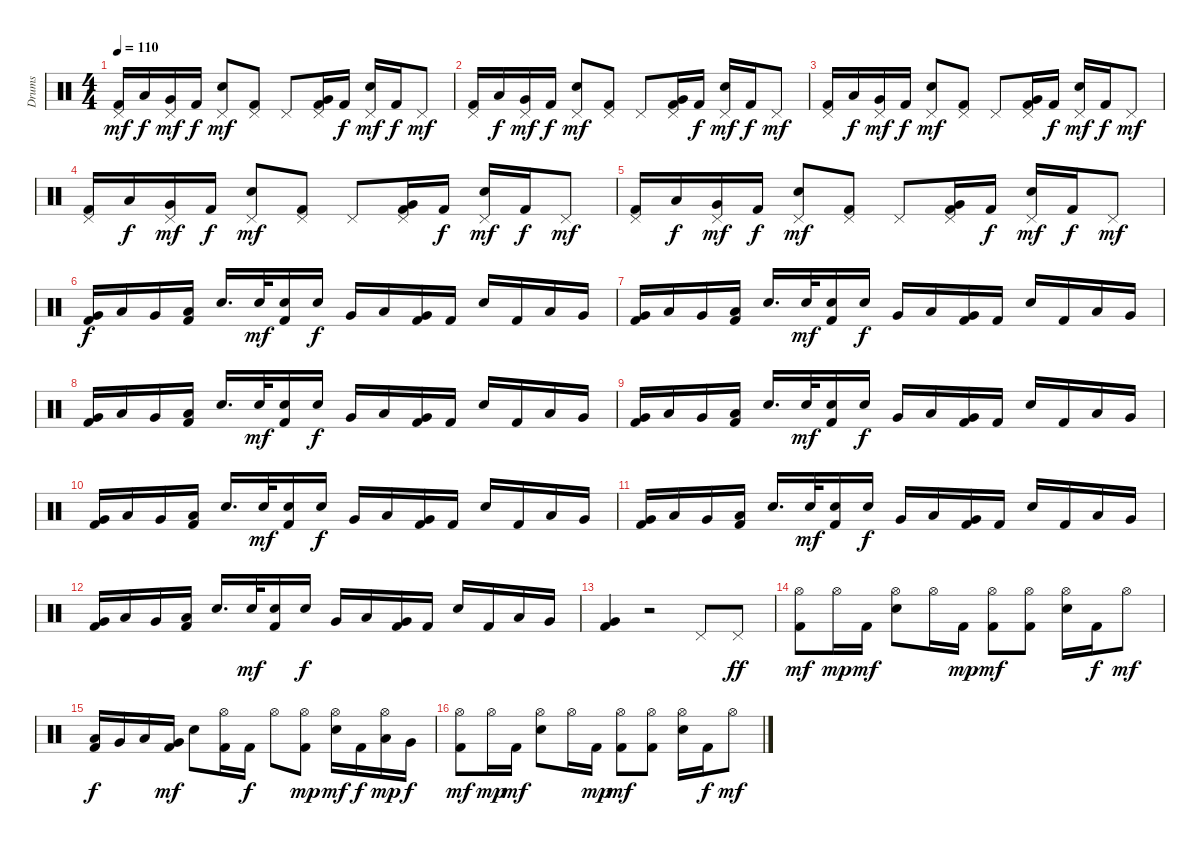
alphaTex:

\track ("Drums" "Drums") {instrument percussion}
\staff {score}
\articulation defaults
\ts (4 4)
\tempo 110
\clef neutral
\ks c
("Pedal Hi-Hat (hit)" "Kick (hit) 2").16{dy mf} "Low Tom (hit)".16{dy f} ("Pedal Hi-Hat (hit)" "Very Low Tom (hit)").16{dy mf} "Kick (hit) 2".16{dy f} ("Pedal Hi-Hat (hit)" "Electric Snare (hit)").8{dy mf} ("Pedal Hi-Hat (hit)" "Kick (hit) 2").8 "Pedal Hi-Hat (hit)".8 ("Pedal Hi-Hat (hit)" "Very Low Tom (hit)" "Kick (hit) 2").16 "Kick (hit) 2".16{dy f} ("Pedal Hi-Hat (hit)" "Electric Snare (hit)").16{dy mf} "Kick (hit) 2".16{dy f} "Pedal Hi-Hat (hit)".8{dy mf} |
("Pedal Hi-Hat (hit)" "Kick (hit) 2").16 "Low Tom (hit)".16{dy f} ("Pedal Hi-Hat (hit)" "Very Low Tom (hit)").16{dy mf} "Kick (hit) 2".16{dy f} ("Pedal Hi-Hat (hit)" "Electric Snare (hit)").8{dy mf} ("Pedal Hi-Hat (hit)" "Kick (hit) 2").8 "Pedal Hi-Hat (hit)".8 ("Pedal Hi-Hat (hit)" "Very Low Tom (hit)" "Kick (hit) 2").16 "Kick (hit) 2".16{dy f} ("Pedal Hi-Hat (hit)" "Electric Snare (hit)").16{dy mf} "Kick (hit) 2".16{dy f} "Pedal Hi-Hat (hit)".8{dy mf} |
("Pedal Hi-Hat (hit)" "Kick (hit) 2").16 "Low Tom (hit)".16{dy f} ("Pedal Hi-Hat (hit)" "Very Low Tom (hit)").16{dy mf} "Kick (hit) 2".16{dy f} ("Pedal Hi-Hat (hit)" "Electric Snare (hit)").8{dy mf} ("Pedal Hi-Hat (hit)" "Kick (hit) 2").8 "Pedal Hi-Hat (hit)".8 ("Pedal Hi-Hat (hit)" "Very Low Tom (hit)" "Kick (hit) 2").16 "Kick (hit) 2".16{dy f} ("Pedal Hi-Hat (hit)" "Electric Snare (hit)").16{dy mf} "Kick (hit) 2".16{dy f} "Pedal Hi-Hat (hit)".8{dy mf} |
("Pedal Hi-Hat (hit)" "Kick (hit) 2").16 "Low Tom (hit)".16{dy f} ("Pedal Hi-Hat (hit)" "Very Low Tom (hit)").16{dy mf} "Kick (hit) 2".16{dy f} ("Pedal Hi-Hat (hit)" "Electric Snare (hit)").8{dy mf} ("Pedal Hi-Hat (hit)" "Kick (hit) 2").8 "Pedal Hi-Hat (hit)".8 ("Pedal Hi-Hat (hit)" "Very Low Tom (hit)" "Kick (hit) 2").16 "Kick (hit) 2".16{dy f} ("Pedal Hi-Hat (hit)" "Electric Snare (hit)").16{dy mf} "Kick (hit) 2".16{dy f} "Pedal Hi-Hat (hit)".8{dy mf} |
("Pedal Hi-Hat (hit)" "Kick (hit) 2").16 "Low Tom (hit)".16{dy f} ("Pedal Hi-Hat (hit)" "Very Low Tom (hit)").16{dy mf} "Kick (hit) 2".16{dy f} ("Pedal Hi-Hat (hit)" "Electric Snare (hit)").8{dy mf} ("Pedal Hi-Hat (hit)" "Kick (hit) 2").8 "Pedal Hi-Hat (hit)".8 ("Pedal Hi-Hat (hit)" "Very Low Tom (hit)" "Kick (hit) 2").16 "Kick (hit) 2".16{dy f} ("Pedal Hi-Hat (hit)" "Electric Snare (hit)").16{dy mf} "Kick (hit) 2".16{dy f} "Pedal Hi-Hat (hit)".8{dy mf} |
("Very Low Tom (hit)" "Kick (hit) 2").16{dy f} "Low Tom (hit)".16 "Very Low Tom (hit)".16 ("Low Tom (hit)" "Kick (hit) 2").16 "Electric Snare (hit)".16{d} "Electric Snare (hit)".32{dy mf} ("Electric Snare (hit)" "Kick (hit) 2").16 "Electric Snare (hit)".16{dy f} "Very Low Tom (hit)".16 "Low Tom (hit)".16 ("Very Low Tom (hit)" "Kick (hit) 2").16 "Kick (hit) 2".16 "Electric Snare (hit)".16 "Kick (hit) 2".16 "Low Tom (hit)".16 "Very Low Tom (hit)".16 |
("Very Low Tom (hit)" "Kick (hit) 2").16 "Low Tom (hit)".16 "Very Low Tom (hit)".16 ("Low Tom (hit)" "Kick (hit) 2").16 "Electric Snare (hit)".16{d} "Electric Snare (hit)".32{dy mf} ("Electric Snare (hit)" "Kick (hit) 2").16 "Electric Snare (hit)".16{dy f} "Very Low Tom (hit)".16 "Low Tom (hit)".16 ("Very Low Tom (hit)" "Kick (hit) 2").16 "Kick (hit) 2".16 "Electric Snare (hit)".16 "Kick (hit) 2".16 "Low Tom (hit)".16 "Very Low Tom (hit)".16 |
("Very Low Tom (hit)" "Kick (hit) 2").16 "Low Tom (hit)".16 "Very Low Tom (hit)".16 ("Low Tom (hit)" "Kick (hit) 2").16 "Electric Snare (hit)".16{d} "Electric Snare (hit)".32{dy mf} ("Electric Snare (hit)" "Kick (hit) 2").16 "Electric Snare (hit)".16{dy f} "Very Low Tom (hit)".16 "Low Tom (hit)".16 ("Very Low Tom (hit)" "Kick (hit) 2").16 "Kick (hit) 2".16 "Electric Snare (hit)".16 "Kick (hit) 2".16 "Low Tom (hit)".16 "Very Low Tom (hit)".16 |
("Very Low Tom (hit)" "Kick (hit) 2").16 "Low Tom (hit)".16 "Very Low Tom (hit)".16 ("Low Tom (hit)" "Kick (hit) 2").16 "Electric Snare (hit)".16{d} "Electric Snare (hit)".32{dy mf} ("Electric Snare (hit)" "Kick (hit) 2").16 "Electric Snare (hit)".16{dy f} "Very Low Tom (hit)".16 "Low Tom (hit)".16 ("Very Low Tom (hit)" "Kick (hit) 2").16 "Kick (hit) 2".16 "Electric Snare (hit)".16 "Kick (hit) 2".16 "Low Tom (hit)".16 "Very Low Tom (hit)".16 |
("Very Low Tom (hit)" "Kick (hit) 2").16 "Low Tom (hit)".16 "Very Low Tom (hit)".16 ("Low Tom (hit)" "Kick (hit) 2").16 "Electric Snare (hit)".16{d} "Electric Snare (hit)".32{dy mf} ("Electric Snare (hit)" "Kick (hit) 2").16 "Electric Snare (hit)".16{dy f} "Very Low Tom (hit)".16 "Low Tom (hit)".16 ("Very Low Tom (hit)" "Kick (hit) 2").16 "Kick (hit) 2".16 "Electric Snare (hit)".16 "Kick (hit) 2".16 "Low Tom (hit)".16 "Very Low Tom (hit)".16 |
("Very Low Tom (hit)" "Kick (hit) 2").16 "Low Tom (hit)".16 "Very Low Tom (hit)".16 ("Low Tom (hit)" "Kick (hit) 2").16 "Electric Snare (hit)".16{d} "Electric Snare (hit)".32{dy mf} ("Electric Snare (hit)" "Kick (hit) 2").16 "Electric Snare (hit)".16{dy f} "Very Low Tom (hit)".16 "Low Tom (hit)".16 ("Very Low Tom (hit)" "Kick (hit) 2").16 "Kick (hit) 2".16 "Electric Snare (hit)".16 "Kick (hit) 2".16 "Low Tom (hit)".16 "Very Low Tom (hit)".16 |
("Very Low Tom (hit)" "Kick (hit) 2").16 "Low Tom (hit)".16 "Very Low Tom (hit)".16 ("Low Tom (hit)" "Kick (hit) 2").16 "Electric Snare (hit)".16{d} "Electric Snare (hit)".32{dy mf} ("Electric Snare (hit)" "Kick (hit) 2").16 "Electric Snare (hit)".16{dy f} "Very Low Tom (hit)".16 "Low Tom (hit)".16 ("Very Low Tom (hit)" "Kick (hit) 2").16 "Kick (hit) 2".16 "Electric Snare (hit)".16 "Kick (hit) 2".16 "Low Tom (hit)".16 "Very Low Tom (hit)".16 |
("Very Low Tom (hit)" "Kick (hit) 2").4 r.2 "Pedal Hi-Hat (hit)".8 "Pedal Hi-Hat (hit)".8{dy ff} |
("Hi-Hat (open)" "Kick (hit) 2").8{dy mf} "Hi-Hat (open)".16{dy mp} "Kick (hit) 2".16{dy mf} ("Hi-Hat (open)" "Electric Snare (hit)").8 "Hi-Hat (open)".16 "Kick (hit) 2".16{dy mp} ("Hi-Hat (open)" "Kick (hit) 2").8{dy mf} ("Hi-Hat (open)" "Kick (hit) 2").8 ("Hi-Hat (open)" "Electric Snare (hit)").16 "Kick (hit) 2".16{dy f} "Hi-Hat (open)".8{dy mf} |
("Low Tom (hit)" "Kick (hit) 2").16{dy f} "Very Low Tom (hit)".16 "Low Tom (hit)".16 ("Very Low Tom (hit)" "Kick (hit) 2").16{dy mf} "Electric Snare (hit)".8 ("Hi-Hat (open)" "Kick (hit) 2").16 "Kick (hit) 2".16{dy f} "Hi-Hat (open)".8 ("Hi-Hat (open)" "Kick (hit) 2").8{dy mp} ("Hi-Hat (open)" "Electric Snare (hit)").16{dy mf} "Kick (hit) 2".16{dy f} ("Hi-Hat (open)" "Low Tom (hit)").16{dy mp} "Very Low Tom (hit)".16{dy f} |
("Hi-Hat (open)" "Kick (hit) 2").8{dy mf} "Hi-Hat (open)".16{dy mp} "Kick (hit) 2".16{dy mf} ("Hi-Hat (open)" "Electric Snare (hit)").8 "Hi-Hat (open)".16 "Kick (hit) 2".16{dy mp} ("Hi-Hat (open)" "Kick (hit) 2").8{dy mf} ("Hi-Hat (open)" "Kick (hit) 2").8 ("Hi-Hat (open)" "Electric Snare (hit)").16 "Kick (hit) 2".16{dy f} "Hi-Hat (open)".8{dy mf}
